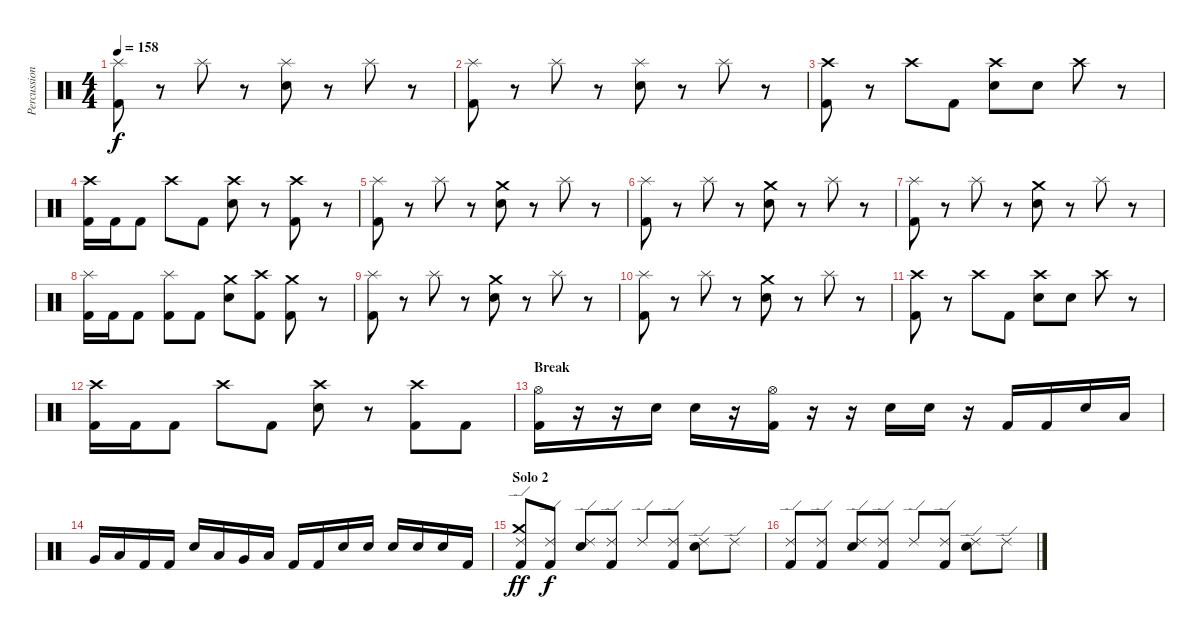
\track ("Percussions" "Percussion") {instrument percussion}
\staff {score}
\articulation defaults
\ts (4 4)
\tempo 158
\clef neutral
\ks c
("Splash (hit)" "Kick (hit) 2").8{dy f} r.8 "Splash (hit)".8 r.8 ("Splash (hit)" "Electric Snare (hit)").8 r.8 "Splash (hit)".8 r.8 |
("Splash (hit)" "Kick (hit) 2").8 r.8 "Splash (hit)".8 r.8 ("Splash (hit)" "Electric Snare (hit)").8 r.8 "Splash (hit)".8 r.8 |
("Crash high (hit)" "Kick (hit) 2").8 r.8 "Crash high (hit)".8 "Kick (hit) 2".8 ("Crash high (hit)" "Electric Snare (hit)").8 "Electric Snare (hit)".8 "Crash high (hit)".8 r.8 |
("Crash high (hit)" "Kick (hit) 2").16 "Kick (hit) 2".16 "Kick (hit) 2".8 "Crash high (hit)".8 "Kick (hit) 2".8 ("Crash high (hit)" "Electric Snare (hit)").8 r.8 ("Crash high (hit)" "Kick (hit) 2").8 r.8 |
("Splash (hit)" "Kick (hit) 2").8 r.8 "Splash (hit)".8 r.8 ("Crash medium (hit)" "Electric Snare (hit)").8 r.8 "Splash (hit)".8 r.8 |
("Splash (hit)" "Kick (hit) 2").8 r.8 "Splash (hit)".8 r.8 ("Crash medium (hit)" "Electric Snare (hit)").8 r.8 "Splash (hit)".8 r.8 |
("Splash (hit)" "Kick (hit) 2").8 r.8 "Splash (hit)".8 r.8 ("Crash medium (hit)" "Electric Snare (hit)").8 r.8 "Splash (hit)".8 r.8 |
("Splash (hit)" "Kick (hit) 2").16 "Kick (hit) 2".16 "Kick (hit) 2".8 ("Splash (hit)" "Kick (hit) 2").8 "Kick (hit) 2".8 ("Crash medium (hit)" "Electric Snare (hit)").8 ("Crash high (hit)" "Kick (hit) 2").8 ("Crash medium (hit)" "Kick (hit) 2").8 r.8 |
("Splash (hit)" "Kick (hit) 2").8 r.8 "Splash (hit)".8 r.8 ("Crash medium (hit)" "Electric Snare (hit)").8 r.8 "Splash (hit)".8 r.8 |
("Splash (hit)" "Kick (hit) 2").8 r.8 "Splash (hit)".8 r.8 ("Crash medium (hit)" "Electric Snare (hit)").8 r.8 "Splash (hit)".8 r.8 |
("Crash high (hit)" "Kick (hit) 2").8 r.8 "Crash high (hit)".8 "Kick (hit) 2".8 ("Crash high (hit)" "Electric Snare (hit)").8 "Electric Snare (hit)".8 "Crash high (hit)".8 r.8 |
("Crash high (hit)" "Kick (hit) 2").16 "Kick (hit) 2".16 "Kick (hit) 2".8 "Crash high (hit)".8 "Kick (hit) 2".8 ("Crash high (hit)" "Electric Snare (hit)").8 r.8 ("Crash high (hit)" "Kick (hit) 2").8 "Kick (hit) 2".8 |
\section ("" "Break")
("Hi-Hat (open)" "Kick (hit) 2").16 r.16 r.16 "Electric Snare (hit)".16 "Electric Snare (hit)".16 r.16 ("Hi-Hat (open)" "Kick (hit) 2").16 r.16 r.16 "Electric Snare (hit)".16 "Electric Snare (hit)".16 r.16 "Kick (hit) 2".16 "Kick (hit) 2".16 "Electric Snare (hit)".16 "Low Tom (hit)".16 |
"Very Low Tom (hit)".16 "Low Floor Tom (hit)".16 "Kick (hit) 2".16 "Kick (hit) 2".16 "Electric Snare (hit)".16 "Low Tom (hit)".16 "Very Low Tom (hit)".16 "Low Floor Tom (hit)".16 "Kick (hit) 2".16 "Kick (hit) 2".16 "Electric Snare (hit)".16 "Electric Snare (hit)".16 "Electric Snare (hit)".16 "Electric Snare (hit)".16 "Electric Snare (hit)".16 "Kick (hit) 2".16 |
\section ("" "Solo 2")
("Crash medium (hit)" "Ride (edge) 2" "Kick (hit) 2").8{dy ff} ("Ride (edge) 2" "Kick (hit) 2").8{dy f} ("Ride (edge) 2" "Electric Snare (hit)").8 ("Ride (edge) 2" "Kick (hit) 2").8 "Ride (edge) 2".8 ("Ride (edge) 2" "Kick (hit) 2").8 ("Ride (edge) 2" "Electric Snare (hit)").8 "Ride (edge) 2".8 |
("Ride (edge) 2" "Kick (hit) 2").8 ("Ride (edge) 2" "Kick (hit) 2").8 ("Ride (edge) 2" "Electric Snare (hit)").8 ("Ride (edge) 2" "Kick (hit) 2").8 "Ride (edge) 2".8 ("Ride (edge) 2" "Kick (hit) 2").8 ("Ride (edge) 2" "Electric Snare (hit)").8 "Ride (edge) 2".8
